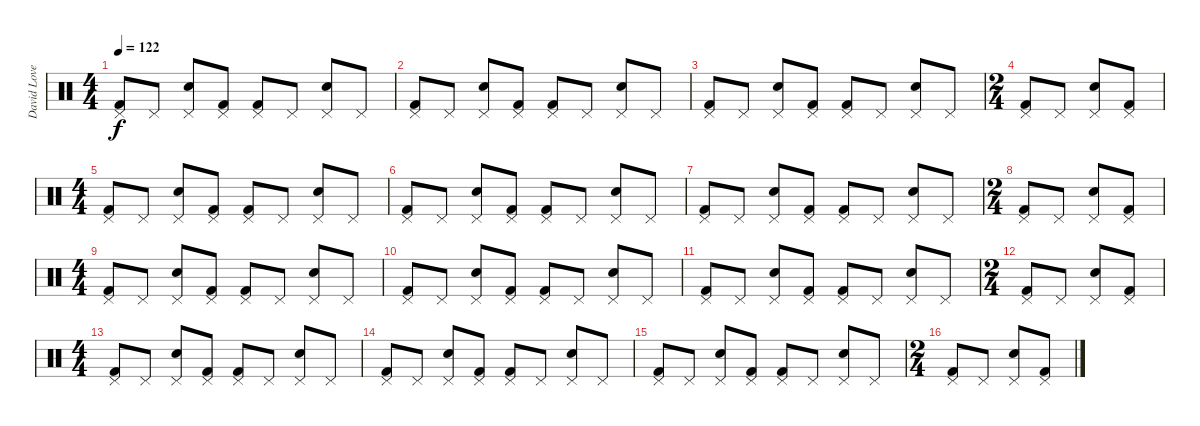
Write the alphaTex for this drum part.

\track ("David Lovering" "David Love") {instrument percussion}
\staff {score}
\articulation defaults
\ts (4 4)
\tempo 122
\clef neutral
\ks c
("Pedal Hi-Hat (hit)" "Kick (hit) 2").8{dy f} "Pedal Hi-Hat (hit)".8 ("Pedal Hi-Hat (hit)" "Electric Snare (hit)").8 ("Pedal Hi-Hat (hit)" "Kick (hit) 2").8 ("Pedal Hi-Hat (hit)" "Kick (hit) 2").8 "Pedal Hi-Hat (hit)".8 ("Pedal Hi-Hat (hit)" "Electric Snare (hit)").8 "Pedal Hi-Hat (hit)".8 |
("Pedal Hi-Hat (hit)" "Kick (hit) 2").8 "Pedal Hi-Hat (hit)".8 ("Pedal Hi-Hat (hit)" "Electric Snare (hit)").8 ("Pedal Hi-Hat (hit)" "Kick (hit) 2").8 ("Pedal Hi-Hat (hit)" "Kick (hit) 2").8 "Pedal Hi-Hat (hit)".8 ("Pedal Hi-Hat (hit)" "Electric Snare (hit)").8 "Pedal Hi-Hat (hit)".8 |
("Pedal Hi-Hat (hit)" "Kick (hit) 2").8 "Pedal Hi-Hat (hit)".8 ("Pedal Hi-Hat (hit)" "Electric Snare (hit)").8 ("Pedal Hi-Hat (hit)" "Kick (hit) 2").8 ("Pedal Hi-Hat (hit)" "Kick (hit) 2").8 "Pedal Hi-Hat (hit)".8 ("Pedal Hi-Hat (hit)" "Electric Snare (hit)").8 "Pedal Hi-Hat (hit)".8 |
\ts (2 4)
("Pedal Hi-Hat (hit)" "Kick (hit) 2").8 "Pedal Hi-Hat (hit)".8 ("Pedal Hi-Hat (hit)" "Electric Snare (hit)").8 ("Pedal Hi-Hat (hit)" "Kick (hit) 2").8 |
\ts (4 4)
("Pedal Hi-Hat (hit)" "Kick (hit) 2").8 "Pedal Hi-Hat (hit)".8 ("Pedal Hi-Hat (hit)" "Electric Snare (hit)").8 ("Pedal Hi-Hat (hit)" "Kick (hit) 2").8 ("Pedal Hi-Hat (hit)" "Kick (hit) 2").8 "Pedal Hi-Hat (hit)".8 ("Pedal Hi-Hat (hit)" "Electric Snare (hit)").8 "Pedal Hi-Hat (hit)".8 |
("Pedal Hi-Hat (hit)" "Kick (hit) 2").8 "Pedal Hi-Hat (hit)".8 ("Pedal Hi-Hat (hit)" "Electric Snare (hit)").8 ("Pedal Hi-Hat (hit)" "Kick (hit) 2").8 ("Pedal Hi-Hat (hit)" "Kick (hit) 2").8 "Pedal Hi-Hat (hit)".8 ("Pedal Hi-Hat (hit)" "Electric Snare (hit)").8 "Pedal Hi-Hat (hit)".8 |
("Pedal Hi-Hat (hit)" "Kick (hit) 2").8 "Pedal Hi-Hat (hit)".8 ("Pedal Hi-Hat (hit)" "Electric Snare (hit)").8 ("Pedal Hi-Hat (hit)" "Kick (hit) 2").8 ("Pedal Hi-Hat (hit)" "Kick (hit) 2").8 "Pedal Hi-Hat (hit)".8 ("Pedal Hi-Hat (hit)" "Electric Snare (hit)").8 "Pedal Hi-Hat (hit)".8 |
\ts (2 4)
("Pedal Hi-Hat (hit)" "Kick (hit) 2").8 "Pedal Hi-Hat (hit)".8 ("Pedal Hi-Hat (hit)" "Electric Snare (hit)").8 ("Pedal Hi-Hat (hit)" "Kick (hit) 2").8 |
\ts (4 4)
("Pedal Hi-Hat (hit)" "Kick (hit) 2").8 "Pedal Hi-Hat (hit)".8 ("Pedal Hi-Hat (hit)" "Electric Snare (hit)").8 ("Pedal Hi-Hat (hit)" "Kick (hit) 2").8 ("Pedal Hi-Hat (hit)" "Kick (hit) 2").8 "Pedal Hi-Hat (hit)".8 ("Pedal Hi-Hat (hit)" "Electric Snare (hit)").8 "Pedal Hi-Hat (hit)".8 |
("Pedal Hi-Hat (hit)" "Kick (hit) 2").8 "Pedal Hi-Hat (hit)".8 ("Pedal Hi-Hat (hit)" "Electric Snare (hit)").8 ("Pedal Hi-Hat (hit)" "Kick (hit) 2").8 ("Pedal Hi-Hat (hit)" "Kick (hit) 2").8 "Pedal Hi-Hat (hit)".8 ("Pedal Hi-Hat (hit)" "Electric Snare (hit)").8 "Pedal Hi-Hat (hit)".8 |
("Pedal Hi-Hat (hit)" "Kick (hit) 2").8 "Pedal Hi-Hat (hit)".8 ("Pedal Hi-Hat (hit)" "Electric Snare (hit)").8 ("Pedal Hi-Hat (hit)" "Kick (hit) 2").8 ("Pedal Hi-Hat (hit)" "Kick (hit) 2").8 "Pedal Hi-Hat (hit)".8 ("Pedal Hi-Hat (hit)" "Electric Snare (hit)").8 "Pedal Hi-Hat (hit)".8 |
\ts (2 4)
("Pedal Hi-Hat (hit)" "Kick (hit) 2").8 "Pedal Hi-Hat (hit)".8 ("Pedal Hi-Hat (hit)" "Electric Snare (hit)").8 ("Pedal Hi-Hat (hit)" "Kick (hit) 2").8 |
\ts (4 4)
("Pedal Hi-Hat (hit)" "Kick (hit) 2").8 "Pedal Hi-Hat (hit)".8 ("Pedal Hi-Hat (hit)" "Electric Snare (hit)").8 ("Pedal Hi-Hat (hit)" "Kick (hit) 2").8 ("Pedal Hi-Hat (hit)" "Kick (hit) 2").8 "Pedal Hi-Hat (hit)".8 ("Pedal Hi-Hat (hit)" "Electric Snare (hit)").8 "Pedal Hi-Hat (hit)".8 |
("Pedal Hi-Hat (hit)" "Kick (hit) 2").8 "Pedal Hi-Hat (hit)".8 ("Pedal Hi-Hat (hit)" "Electric Snare (hit)").8 ("Pedal Hi-Hat (hit)" "Kick (hit) 2").8 ("Pedal Hi-Hat (hit)" "Kick (hit) 2").8 "Pedal Hi-Hat (hit)".8 ("Pedal Hi-Hat (hit)" "Electric Snare (hit)").8 "Pedal Hi-Hat (hit)".8 |
("Pedal Hi-Hat (hit)" "Kick (hit) 2").8 "Pedal Hi-Hat (hit)".8 ("Pedal Hi-Hat (hit)" "Electric Snare (hit)").8 ("Pedal Hi-Hat (hit)" "Kick (hit) 2").8 ("Pedal Hi-Hat (hit)" "Kick (hit) 2").8 "Pedal Hi-Hat (hit)".8 ("Pedal Hi-Hat (hit)" "Electric Snare (hit)").8 "Pedal Hi-Hat (hit)".8 |
\ts (2 4)
("Pedal Hi-Hat (hit)" "Kick (hit) 2").8 "Pedal Hi-Hat (hit)".8 ("Pedal Hi-Hat (hit)" "Electric Snare (hit)").8 ("Pedal Hi-Hat (hit)" "Kick (hit) 2").8
